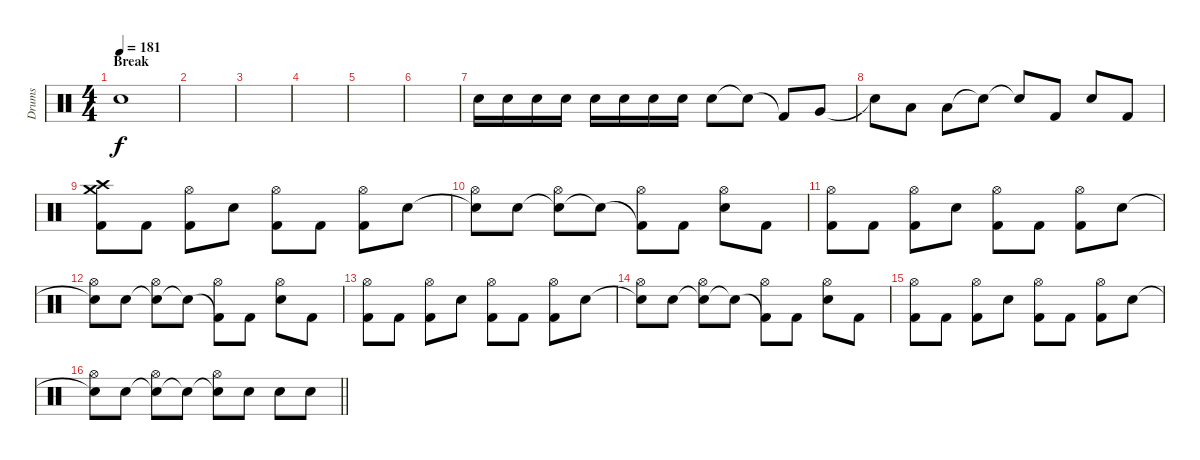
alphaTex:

\track ("Drums" "Drums") {instrument percussion}
\staff {score}
\articulation defaults
\ts (4 4)
\section ("" "Break")
\tempo 181
\clef neutral
\ks c "Electric Snare (hit)".1{dy f}
|
|
|
|
|
|
"Electric Snare (hit)".16 "Electric Snare (hit)".16 "Electric Snare (hit)".16 "Electric Snare (hit)".16 "Electric Snare (hit)".16 "Electric Snare (hit)".16 "Electric Snare (hit)".16 "Electric Snare (hit)".16 "Electric Snare (hit)".8 "Snare (hit)"{t}.8 "Kick (hit) 2"{t}.8 "Very Low Tom (hit)".8 |
"Snare (hit)"{t}.8 "Low Floor Tom (hit)".8 "Low Floor Tom (hit)".8 "Snare (hit)"{t}.8 "Snare (hit)"{t}.8 "Kick (hit) 2".8 "Electric Snare (hit)".8 "Kick (hit) 2".8 |
("Kick (hit) 2" "Crash high (hit)" "Crash medium (hit)").8 "Kick (hit) 2".8 ("Kick (hit) 2" "Hi-Hat (open)").8 "Electric Snare (hit)".8 ("Kick (hit) 2" "Hi-Hat (open)").8 "Kick (hit) 2".8 ("Kick (hit) 2" "Hi-Hat (open)").8 "Electric Snare (hit)".8 |
("Snare (hit)"{t} "Hi-Hat (open)").8 "Electric Snare (hit)".8 ("Snare (hit)"{t} "Hi-Hat (open)").8 "Snare (hit)"{t}.8 ("Kick (hit) 2"{t} "Hi-Hat (open)").8 "Kick (hit) 2".8 ("Electric Snare (hit)" "Hi-Hat (open)").8 "Kick (hit) 2".8 |
("Kick (hit) 2" "Hi-Hat (open)").8 "Kick (hit) 2".8 ("Kick (hit) 2" "Hi-Hat (open)").8 "Electric Snare (hit)".8 ("Kick (hit) 2" "Hi-Hat (open)").8 "Kick (hit) 2".8 ("Kick (hit) 2" "Hi-Hat (open)").8 "Electric Snare (hit)".8 |
("Snare (hit)"{t} "Hi-Hat (open)").8 "Electric Snare (hit)".8 ("Snare (hit)"{t} "Hi-Hat (open)").8 "Snare (hit)"{t}.8 ("Kick (hit) 2"{t} "Hi-Hat (open)").8 "Kick (hit) 2".8 ("Electric Snare (hit)" "Hi-Hat (open)").8 "Kick (hit) 2".8 |
("Kick (hit) 2" "Hi-Hat (open)").8 "Kick (hit) 2".8 ("Kick (hit) 2" "Hi-Hat (open)").8 "Electric Snare (hit)".8 ("Kick (hit) 2" "Hi-Hat (open)").8 "Kick (hit) 2".8 ("Kick (hit) 2" "Hi-Hat (open)").8 "Electric Snare (hit)".8 |
("Snare (hit)"{t} "Hi-Hat (open)").8 "Electric Snare (hit)".8 ("Snare (hit)"{t} "Hi-Hat (open)").8 "Snare (hit)"{t}.8 ("Kick (hit) 2"{t} "Hi-Hat (open)").8 "Kick (hit) 2".8 ("Electric Snare (hit)" "Hi-Hat (open)").8 "Kick (hit) 2".8 |
("Kick (hit) 2" "Hi-Hat (open)").8 "Kick (hit) 2".8 ("Kick (hit) 2" "Hi-Hat (open)").8 "Electric Snare (hit)".8 ("Kick (hit) 2" "Hi-Hat (open)").8 "Kick (hit) 2".8 ("Kick (hit) 2" "Hi-Hat (open)").8 "Electric Snare (hit)".8 |
\barLineRight lightlight
("Snare (hit)"{t} "Hi-Hat (open)").8 "Electric Snare (hit)".8 ("Snare (hit)"{t} "Hi-Hat (open)").8 "Electric Snare (hit)"{t}.8 ("Electric Snare (hit)"{t} "Hi-Hat (open)").8 "Electric Snare (hit)".8 "Electric Snare (hit)".8 "Electric Snare (hit)".8
